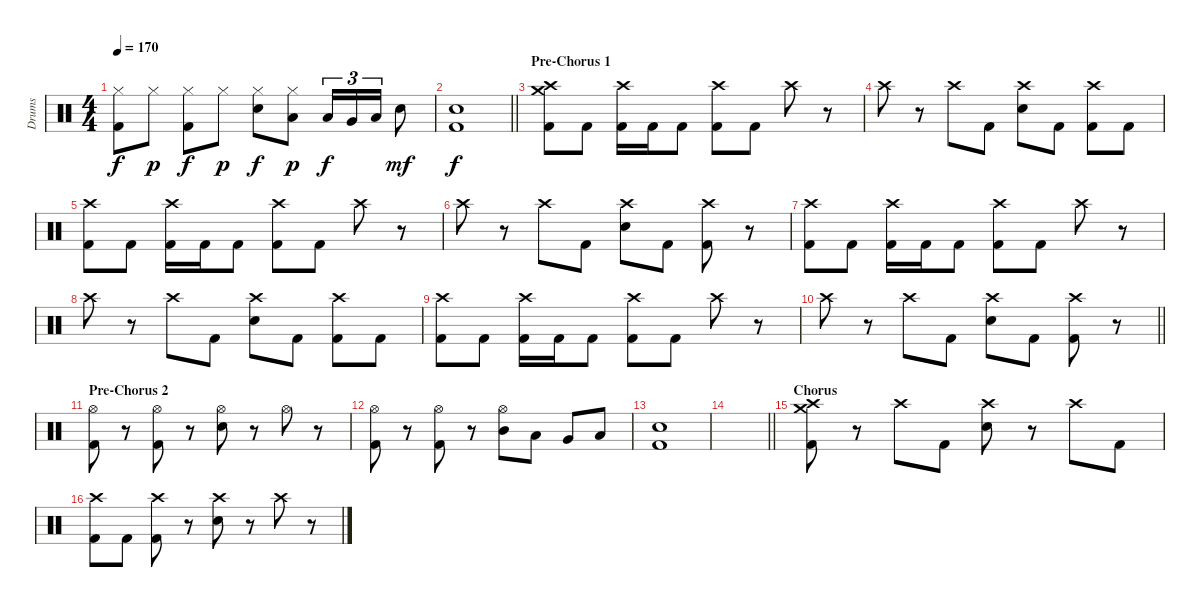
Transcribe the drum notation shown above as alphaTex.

\track ("Drums" "Drums") {instrument percussion}
\staff {score}
\articulation defaults
\ts (4 4)
\tempo 170
\clef neutral
\ks c
("Hi-Hat (closed)" "Kick (hit) 2").8{dy f} "Hi-Hat (closed)".8{dy p} ("Hi-Hat (closed)" "Kick (hit) 2").8{dy f} "Hi-Hat (closed)".8{dy p} ("Hi-Hat (closed)" "Electric Snare (hit)").8{dy f} ("Hi-Hat (closed)" "Low Floor Tom (hit)").8{dy p} "Low Tom (hit)".16{tu (3 2) dy f} "Very Low Tom (hit)".16{tu (3 2)} "Low Floor Tom (hit)".16{tu (3 2)} "Electric Snare (hit)".8{dy mf} |
\barLineRight lightlight
("Electric Snare (hit)" "Kick (hit) 2").1{dy f} |
\section ("" "Pre-Chorus 1")
("Crash high (hit)" "Kick (hit) 2" "Crash medium (hit)").8 "Kick (hit) 2".8 ("Crash high (hit)" "Kick (hit) 2").16 "Kick (hit) 2".16 "Kick (hit) 2".8 ("Crash high (hit)" "Kick (hit) 2").8 "Kick (hit) 2".8 "Crash high (hit)".8 r.8 |
"Crash high (hit)".8 r.8 "Crash high (hit)".8 "Kick (hit) 2".8 ("Crash high (hit)" "Electric Snare (hit)").8 "Kick (hit) 2".8 ("Crash high (hit)" "Kick (hit) 2").8 "Kick (hit) 2".8 |
("Crash high (hit)" "Kick (hit) 2").8 "Kick (hit) 2".8 ("Crash high (hit)" "Kick (hit) 2").16 "Kick (hit) 2".16 "Kick (hit) 2".8 ("Crash high (hit)" "Kick (hit) 2").8 "Kick (hit) 2".8 "Crash high (hit)".8 r.8 |
"Crash high (hit)".8 r.8 "Crash high (hit)".8 "Kick (hit) 2".8 ("Crash high (hit)" "Electric Snare (hit)").8 "Kick (hit) 2".8 ("Crash high (hit)" "Kick (hit) 2").8 r.8 |
("Crash high (hit)" "Kick (hit) 2").8 "Kick (hit) 2".8 ("Crash high (hit)" "Kick (hit) 2").16 "Kick (hit) 2".16 "Kick (hit) 2".8 ("Crash high (hit)" "Kick (hit) 2").8 "Kick (hit) 2".8 "Crash high (hit)".8 r.8 |
"Crash high (hit)".8 r.8 "Crash high (hit)".8 "Kick (hit) 2".8 ("Crash high (hit)" "Electric Snare (hit)").8 "Kick (hit) 2".8 ("Crash high (hit)" "Kick (hit) 2").8 "Kick (hit) 2".8 |
("Crash high (hit)" "Kick (hit) 2").8 "Kick (hit) 2".8 ("Crash high (hit)" "Kick (hit) 2").16 "Kick (hit) 2".16 "Kick (hit) 2".8 ("Crash high (hit)" "Kick (hit) 2").8 "Kick (hit) 2".8 "Crash high (hit)".8 r.8 |
\barLineRight lightlight "Crash high (hit)".8
r.8 "Crash high (hit)".8 "Kick (hit) 2".8 ("Crash high (hit)" "Electric Snare (hit)").8 "Kick (hit) 2".8 ("Crash high (hit)" "Kick (hit) 2").8 r.8 |
\section ("" "Pre-Chorus 2")
("Hi-Hat (open)" "Kick (hit) 2").8 r.8 ("Hi-Hat (open)" "Kick (hit) 2").8 r.8 ("Hi-Hat (open)" "Electric Snare (hit)").8 r.8 "Hi-Hat (open)".8 r.8 |
("Hi-Hat (open)" "Kick (hit) 2").8 r.8 ("Hi-Hat (open)" "Kick (hit) 2").8 r.8 ("Hi-Hat (open)" "Mid Tom (hit)").8 "Low Tom (hit)".8 "Very Low Tom (hit)".8 "Low Floor Tom (hit)".8 |
("Electric Snare (hit)" "Kick (hit) 2").1 |
\barLineRight lightlight
|
\section ("" "Chorus")
("Crash high (hit)" "Kick (hit) 2" "Crash medium (hit)").8 r.8 "Crash high (hit)".8 "Kick (hit) 2".8 ("Crash high (hit)" "Electric Snare (hit)").8 r.8 "Crash high (hit)".8 "Kick (hit) 2".8 |
("Crash high (hit)" "Kick (hit) 2").8 "Kick (hit) 2".8 ("Crash high (hit)" "Kick (hit) 2").8 r.8 ("Crash high (hit)" "Electric Snare (hit)").8 r.8 "Crash high (hit)".8 r.8
